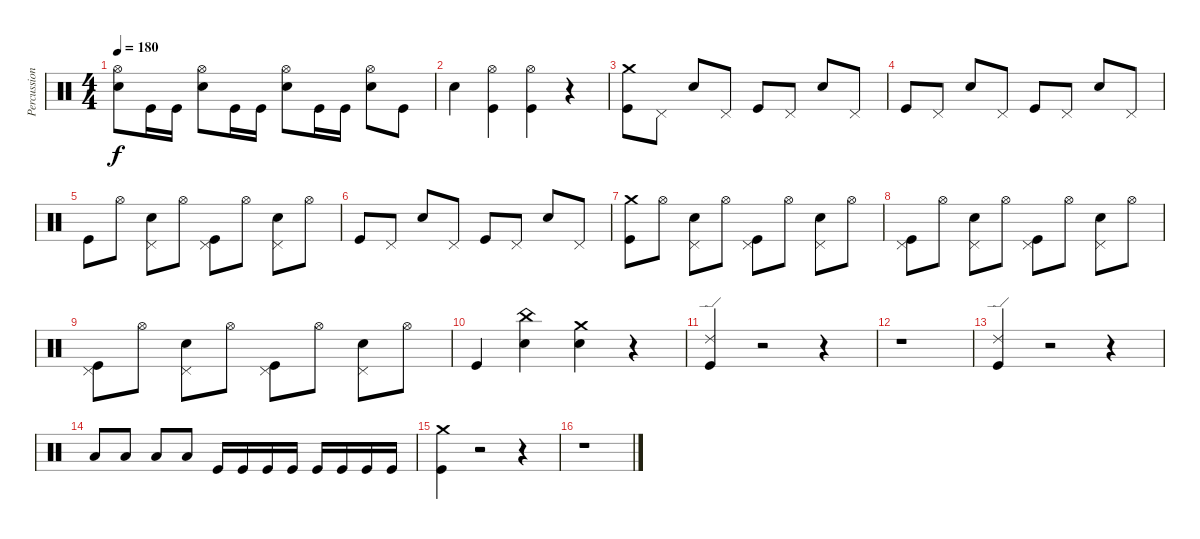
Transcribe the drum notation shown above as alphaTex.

\track ("Percussions" "Percussion") {instrument percussion}
\staff {score}
\articulation defaults
\ts (4 4)
\tempo 180
\clef neutral
\ks c
("Hi-Hat (open)" "Snare (hit) 2").8{dy f} "Kick (hit)".16 "Kick (hit)".16 ("Hi-Hat (open)" "Snare (hit) 2").8 "Kick (hit)".16 "Kick (hit)".16 ("Hi-Hat (open)" "Snare (hit) 2").8 "Kick (hit)".16 "Kick (hit)".16 ("Hi-Hat (open)" "Snare (hit) 2").8 "Kick (hit)".8 |
"Snare (hit) 2".4 ("Hi-Hat (open)" "Kick (hit)").4 ("Hi-Hat (open)" "Kick (hit)").4 r.4 |
("Crash medium (hit)" "Kick (hit)").8 "Pedal Hi-Hat (hit)".8 "Snare (hit) 2".8 "Pedal Hi-Hat (hit)".8 "Kick (hit)".8 "Pedal Hi-Hat (hit)".8 "Snare (hit) 2".8 "Pedal Hi-Hat (hit)".8 |
"Kick (hit)".8 "Pedal Hi-Hat (hit)".8 "Snare (hit) 2".8 "Pedal Hi-Hat (hit)".8 "Kick (hit)".8 "Pedal Hi-Hat (hit)".8 "Snare (hit) 2".8 "Pedal Hi-Hat (hit)".8 |
"Kick (hit)".8 "Hi-Hat (open)".8 ("Pedal Hi-Hat (hit)" "Snare (hit) 2").8 "Hi-Hat (open)".8 ("Pedal Hi-Hat (hit)" "Kick (hit)").8 "Hi-Hat (open)".8 ("Pedal Hi-Hat (hit)" "Snare (hit) 2").8 "Hi-Hat (open)".8 |
"Kick (hit)".8 "Pedal Hi-Hat (hit)".8 "Snare (hit) 2".8 "Pedal Hi-Hat (hit)".8 "Kick (hit)".8 "Pedal Hi-Hat (hit)".8 "Snare (hit) 2".8 "Pedal Hi-Hat (hit)".8 |
("Crash medium (hit)" "Kick (hit)").8 "Hi-Hat (open)".8 ("Pedal Hi-Hat (hit)" "Snare (hit) 2").8 "Hi-Hat (open)".8 ("Pedal Hi-Hat (hit)" "Kick (hit)").8 "Hi-Hat (open)".8 ("Pedal Hi-Hat (hit)" "Snare (hit) 2").8 "Hi-Hat (open)".8 |
("Pedal Hi-Hat (hit)" "Kick (hit)").8 "Hi-Hat (open)".8 ("Pedal Hi-Hat (hit)" "Snare (hit) 2").8 "Hi-Hat (open)".8 ("Pedal Hi-Hat (hit)" "Kick (hit)").8 "Hi-Hat (open)".8 ("Pedal Hi-Hat (hit)" "Snare (hit) 2").8 "Hi-Hat (open)".8 |
("Pedal Hi-Hat (hit)" "Kick (hit)").8 "Hi-Hat (open)".8 ("Pedal Hi-Hat (hit)" "Snare (hit) 2").8 "Hi-Hat (open)".8 ("Pedal Hi-Hat (hit)" "Kick (hit)").8 "Hi-Hat (open)".8 ("Pedal Hi-Hat (hit)" "Snare (hit) 2").8 "Hi-Hat (open)".8 |
"Kick (hit)".4 ("China (hit)" "Snare (hit) 2").4 ("Snare (hit) 2" "Crash medium (hit)").4 r.4 |
("Ride (edge) 2" "Kick (hit)").4 r.2 r.4 |
r.1 |
("Ride (edge) 2" "Kick (hit)").4 r.2 r.4 |
"Low Tom (hit)".8 "Low Tom (hit)".8 "Low Tom (hit)".8 "Low Tom (hit)".8 "Kick (hit)".16 "Kick (hit)".16 "Kick (hit)".16 "Kick (hit)".16 "Kick (hit)".16 "Kick (hit)".16 "Kick (hit)".16 "Kick (hit)".16 |
("Crash medium (hit)" "Kick (hit)").4 r.2 r.4 |
r.1
